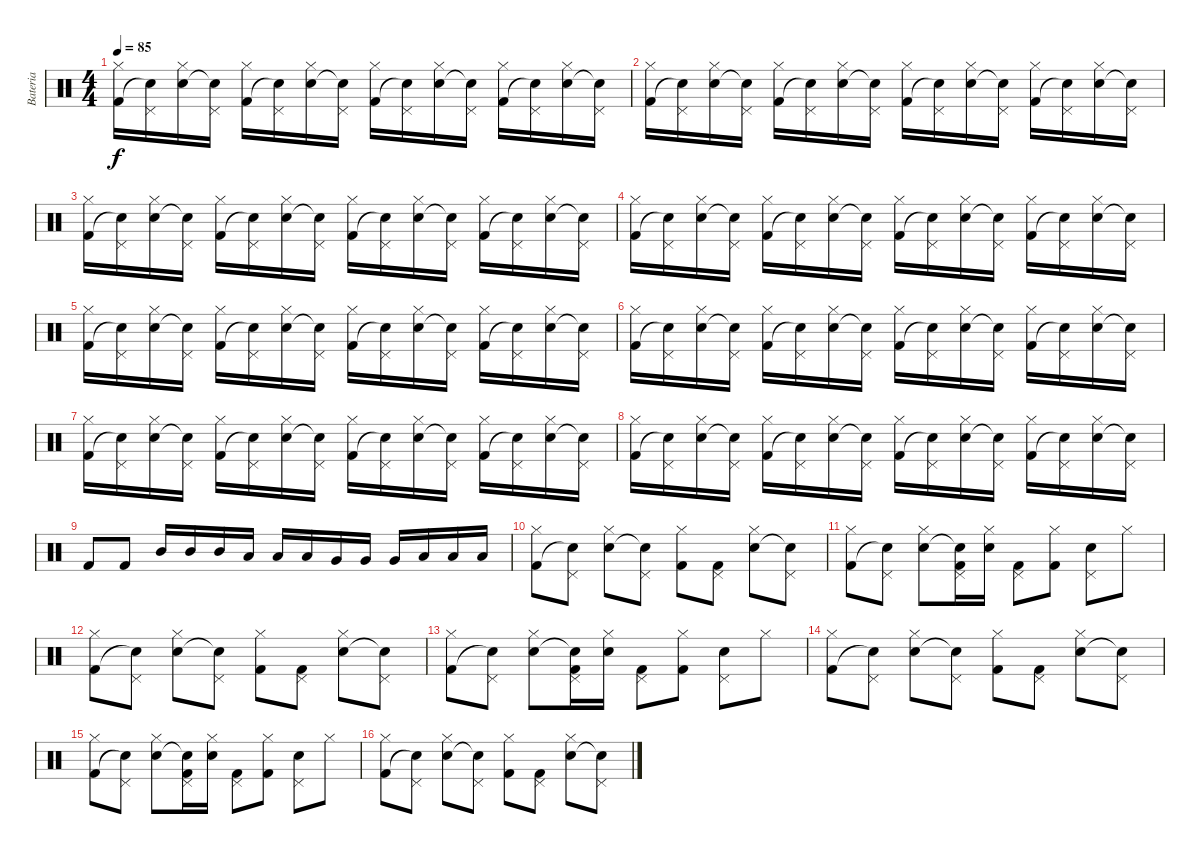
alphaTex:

\track ("Bateria" "Bateria") {instrument percussion}
\staff {score}
\articulation defaults
\ts (4 4)
\tempo 85
\clef neutral
\ks c
("Hi-Hat (closed)" "Kick (hit) 2").16{dy f} ("Pedal Hi-Hat (hit)" "Snare (hit)"{t}).16 ("Hi-Hat (closed)" "Electric Snare (hit)").16 ("Pedal Hi-Hat (hit)" "Snare (hit)"{t}).16 ("Hi-Hat (closed)" "Kick (hit) 2").16 ("Pedal Hi-Hat (hit)" "Snare (hit)"{t}).16 ("Hi-Hat (closed)" "Electric Snare (hit)").16 ("Pedal Hi-Hat (hit)" "Snare (hit)"{t}).16 ("Hi-Hat (closed)" "Kick (hit) 2").16 ("Pedal Hi-Hat (hit)" "Snare (hit)"{t}).16 ("Hi-Hat (closed)" "Electric Snare (hit)").16 ("Pedal Hi-Hat (hit)" "Snare (hit)"{t}).16 ("Hi-Hat (closed)" "Kick (hit) 2").16 ("Pedal Hi-Hat (hit)" "Snare (hit)"{t}).16 ("Hi-Hat (closed)" "Electric Snare (hit)").16 ("Pedal Hi-Hat (hit)" "Snare (hit)"{t}).16 |
("Hi-Hat (closed)" "Kick (hit) 2").16 ("Pedal Hi-Hat (hit)" "Snare (hit)"{t}).16 ("Hi-Hat (closed)" "Electric Snare (hit)").16 ("Pedal Hi-Hat (hit)" "Snare (hit)"{t}).16 ("Hi-Hat (closed)" "Kick (hit) 2").16 ("Pedal Hi-Hat (hit)" "Snare (hit)"{t}).16 ("Hi-Hat (closed)" "Electric Snare (hit)").16 ("Pedal Hi-Hat (hit)" "Snare (hit)"{t}).16 ("Hi-Hat (closed)" "Kick (hit) 2").16 ("Pedal Hi-Hat (hit)" "Snare (hit)"{t}).16 ("Hi-Hat (closed)" "Electric Snare (hit)").16 ("Pedal Hi-Hat (hit)" "Snare (hit)"{t}).16 ("Hi-Hat (closed)" "Kick (hit) 2").16 ("Pedal Hi-Hat (hit)" "Snare (hit)"{t}).16 ("Hi-Hat (closed)" "Electric Snare (hit)").16 ("Pedal Hi-Hat (hit)" "Snare (hit)"{t}).16 |
("Hi-Hat (closed)" "Kick (hit) 2").16 ("Pedal Hi-Hat (hit)" "Snare (hit)"{t}).16 ("Hi-Hat (closed)" "Electric Snare (hit)").16 ("Pedal Hi-Hat (hit)" "Snare (hit)"{t}).16 ("Hi-Hat (closed)" "Kick (hit) 2").16 ("Pedal Hi-Hat (hit)" "Snare (hit)"{t}).16 ("Hi-Hat (closed)" "Electric Snare (hit)").16 ("Pedal Hi-Hat (hit)" "Snare (hit)"{t}).16 ("Hi-Hat (closed)" "Kick (hit) 2").16 ("Pedal Hi-Hat (hit)" "Snare (hit)"{t}).16 ("Hi-Hat (closed)" "Electric Snare (hit)").16 ("Pedal Hi-Hat (hit)" "Snare (hit)"{t}).16 ("Hi-Hat (closed)" "Kick (hit) 2").16 ("Pedal Hi-Hat (hit)" "Snare (hit)"{t}).16 ("Hi-Hat (closed)" "Electric Snare (hit)").16 ("Pedal Hi-Hat (hit)" "Snare (hit)"{t}).16 |
("Hi-Hat (closed)" "Kick (hit) 2").16 ("Pedal Hi-Hat (hit)" "Snare (hit)"{t}).16 ("Hi-Hat (closed)" "Electric Snare (hit)").16 ("Pedal Hi-Hat (hit)" "Snare (hit)"{t}).16 ("Hi-Hat (closed)" "Kick (hit) 2").16 ("Pedal Hi-Hat (hit)" "Snare (hit)"{t}).16 ("Hi-Hat (closed)" "Electric Snare (hit)").16 ("Pedal Hi-Hat (hit)" "Snare (hit)"{t}).16 ("Hi-Hat (closed)" "Kick (hit) 2").16 ("Pedal Hi-Hat (hit)" "Snare (hit)"{t}).16 ("Hi-Hat (closed)" "Electric Snare (hit)").16 ("Pedal Hi-Hat (hit)" "Snare (hit)"{t}).16 ("Hi-Hat (closed)" "Kick (hit) 2").16 ("Pedal Hi-Hat (hit)" "Snare (hit)"{t}).16 ("Hi-Hat (closed)" "Electric Snare (hit)").16 ("Pedal Hi-Hat (hit)" "Snare (hit)"{t}).16 |
("Hi-Hat (closed)" "Kick (hit) 2").16 ("Pedal Hi-Hat (hit)" "Snare (hit)"{t}).16 ("Hi-Hat (closed)" "Electric Snare (hit)").16 ("Pedal Hi-Hat (hit)" "Snare (hit)"{t}).16 ("Hi-Hat (closed)" "Kick (hit) 2").16 ("Pedal Hi-Hat (hit)" "Snare (hit)"{t}).16 ("Hi-Hat (closed)" "Electric Snare (hit)").16 ("Pedal Hi-Hat (hit)" "Snare (hit)"{t}).16 ("Hi-Hat (closed)" "Kick (hit) 2").16 ("Pedal Hi-Hat (hit)" "Snare (hit)"{t}).16 ("Hi-Hat (closed)" "Electric Snare (hit)").16 ("Pedal Hi-Hat (hit)" "Snare (hit)"{t}).16 ("Hi-Hat (closed)" "Kick (hit) 2").16 ("Pedal Hi-Hat (hit)" "Snare (hit)"{t}).16 ("Hi-Hat (closed)" "Electric Snare (hit)").16 ("Pedal Hi-Hat (hit)" "Snare (hit)"{t}).16 |
("Hi-Hat (closed)" "Kick (hit) 2").16 ("Pedal Hi-Hat (hit)" "Snare (hit)"{t}).16 ("Hi-Hat (closed)" "Electric Snare (hit)").16 ("Pedal Hi-Hat (hit)" "Snare (hit)"{t}).16 ("Hi-Hat (closed)" "Kick (hit) 2").16 ("Pedal Hi-Hat (hit)" "Snare (hit)"{t}).16 ("Hi-Hat (closed)" "Electric Snare (hit)").16 ("Pedal Hi-Hat (hit)" "Snare (hit)"{t}).16 ("Hi-Hat (closed)" "Kick (hit) 2").16 ("Pedal Hi-Hat (hit)" "Snare (hit)"{t}).16 ("Hi-Hat (closed)" "Electric Snare (hit)").16 ("Pedal Hi-Hat (hit)" "Snare (hit)"{t}).16 ("Hi-Hat (closed)" "Kick (hit) 2").16 ("Pedal Hi-Hat (hit)" "Snare (hit)"{t}).16 ("Hi-Hat (closed)" "Electric Snare (hit)").16 ("Pedal Hi-Hat (hit)" "Snare (hit)"{t}).16 |
("Hi-Hat (closed)" "Kick (hit) 2").16 ("Pedal Hi-Hat (hit)" "Snare (hit)"{t}).16 ("Hi-Hat (closed)" "Electric Snare (hit)").16 ("Pedal Hi-Hat (hit)" "Snare (hit)"{t}).16 ("Hi-Hat (closed)" "Kick (hit) 2").16 ("Pedal Hi-Hat (hit)" "Snare (hit)"{t}).16 ("Hi-Hat (closed)" "Electric Snare (hit)").16 ("Pedal Hi-Hat (hit)" "Snare (hit)"{t}).16 ("Hi-Hat (closed)" "Kick (hit) 2").16 ("Pedal Hi-Hat (hit)" "Snare (hit)"{t}).16 ("Hi-Hat (closed)" "Electric Snare (hit)").16 ("Pedal Hi-Hat (hit)" "Snare (hit)"{t}).16 ("Hi-Hat (closed)" "Kick (hit) 2").16 ("Pedal Hi-Hat (hit)" "Snare (hit)"{t}).16 ("Hi-Hat (closed)" "Electric Snare (hit)").16 ("Pedal Hi-Hat (hit)" "Snare (hit)"{t}).16 |
("Hi-Hat (closed)" "Kick (hit) 2").16 ("Pedal Hi-Hat (hit)" "Snare (hit)"{t}).16 ("Hi-Hat (closed)" "Electric Snare (hit)").16 ("Pedal Hi-Hat (hit)" "Snare (hit)"{t}).16 ("Hi-Hat (closed)" "Kick (hit) 2").16 ("Pedal Hi-Hat (hit)" "Snare (hit)"{t}).16 ("Hi-Hat (closed)" "Electric Snare (hit)").16 ("Pedal Hi-Hat (hit)" "Snare (hit)"{t}).16 ("Hi-Hat (closed)" "Kick (hit) 2").16 ("Pedal Hi-Hat (hit)" "Snare (hit)"{t}).16 ("Hi-Hat (closed)" "Electric Snare (hit)").16 ("Pedal Hi-Hat (hit)" "Snare (hit)"{t}).16 ("Hi-Hat (closed)" "Kick (hit) 2").16 ("Pedal Hi-Hat (hit)" "Snare (hit)"{t}).16 ("Hi-Hat (closed)" "Electric Snare (hit)").16 ("Pedal Hi-Hat (hit)" "Snare (hit)"{t}).16 |
"Kick (hit) 2".8 "Kick (hit) 2".8 "Mid Tom (hit)".16 "Mid Tom (hit)".16 "Mid Tom (hit)".16 "Low Tom (hit)".16 "Low Tom (hit)".16 "Low Tom (hit)".16 "Very Low Tom (hit)".16 "Very Low Tom (hit)".16 "Very Low Tom (hit)".16 "Low Floor Tom (hit)".16 "Low Floor Tom (hit)".16 "Low Floor Tom (hit)".16 |
("Hi-Hat (closed)" "Kick (hit) 2").8 ("Pedal Hi-Hat (hit)" "Snare (hit)"{t}).8 ("Hi-Hat (closed)" "Electric Snare (hit)").8 ("Pedal Hi-Hat (hit)" "Snare (hit)"{t}).8 ("Hi-Hat (closed)" "Kick (hit) 2").8 ("Pedal Hi-Hat (hit)" "Kick (hit) 2").8 ("Hi-Hat (closed)" "Electric Snare (hit)").8 ("Pedal Hi-Hat (hit)" "Snare (hit)"{t}).8 |
("Hi-Hat (closed)" "Kick (hit) 2").8 ("Pedal Hi-Hat (hit)" "Snare (hit)"{t}).8 ("Hi-Hat (closed)" "Electric Snare (hit)").8 ("Pedal Hi-Hat (hit)" "Snare (hit)"{t} "Kick (hit) 2").16 ("Hi-Hat (closed)" "Electric Snare (hit)").16 ("Pedal Hi-Hat (hit)" "Kick (hit) 2").8 ("Hi-Hat (closed)" "Kick (hit) 2").8 ("Pedal Hi-Hat (hit)" "Electric Snare (hit)").8 "Hi-Hat (closed)".8 |
("Hi-Hat (closed)" "Kick (hit) 2").8 ("Pedal Hi-Hat (hit)" "Snare (hit)"{t}).8 ("Hi-Hat (closed)" "Electric Snare (hit)").8 ("Pedal Hi-Hat (hit)" "Snare (hit)"{t}).8 ("Hi-Hat (closed)" "Kick (hit) 2").8 ("Pedal Hi-Hat (hit)" "Kick (hit) 2").8 ("Hi-Hat (closed)" "Electric Snare (hit)").8 ("Pedal Hi-Hat (hit)" "Snare (hit)"{t}).8 |
("Hi-Hat (closed)" "Kick (hit) 2").8 ("Pedal Hi-Hat (hit)" "Snare (hit)"{t}).8 ("Hi-Hat (closed)" "Electric Snare (hit)").8 ("Pedal Hi-Hat (hit)" "Snare (hit)"{t} "Kick (hit) 2").16 ("Hi-Hat (closed)" "Electric Snare (hit)").16 ("Pedal Hi-Hat (hit)" "Kick (hit) 2").8 ("Hi-Hat (closed)" "Kick (hit) 2").8 ("Pedal Hi-Hat (hit)" "Electric Snare (hit)").8 "Hi-Hat (closed)".8 |
("Hi-Hat (closed)" "Kick (hit) 2").8 ("Pedal Hi-Hat (hit)" "Snare (hit)"{t}).8 ("Hi-Hat (closed)" "Electric Snare (hit)").8 ("Pedal Hi-Hat (hit)" "Snare (hit)"{t}).8 ("Hi-Hat (closed)" "Kick (hit) 2").8 ("Pedal Hi-Hat (hit)" "Kick (hit) 2").8 ("Hi-Hat (closed)" "Electric Snare (hit)").8 ("Pedal Hi-Hat (hit)" "Snare (hit)"{t}).8 |
("Hi-Hat (closed)" "Kick (hit) 2").8 ("Pedal Hi-Hat (hit)" "Snare (hit)"{t}).8 ("Hi-Hat (closed)" "Electric Snare (hit)").8 ("Pedal Hi-Hat (hit)" "Snare (hit)"{t} "Kick (hit) 2").16 ("Hi-Hat (closed)" "Electric Snare (hit)").16 ("Pedal Hi-Hat (hit)" "Kick (hit) 2").8 ("Hi-Hat (closed)" "Kick (hit) 2").8 ("Pedal Hi-Hat (hit)" "Electric Snare (hit)").8 "Hi-Hat (closed)".8 |
("Hi-Hat (closed)" "Kick (hit) 2").8 ("Pedal Hi-Hat (hit)" "Snare (hit)"{t}).8 ("Hi-Hat (closed)" "Electric Snare (hit)").8 ("Pedal Hi-Hat (hit)" "Snare (hit)"{t}).8 ("Hi-Hat (closed)" "Kick (hit) 2").8 ("Pedal Hi-Hat (hit)" "Kick (hit) 2").8 ("Hi-Hat (closed)" "Electric Snare (hit)").8 ("Pedal Hi-Hat (hit)" "Snare (hit)"{t}).8
